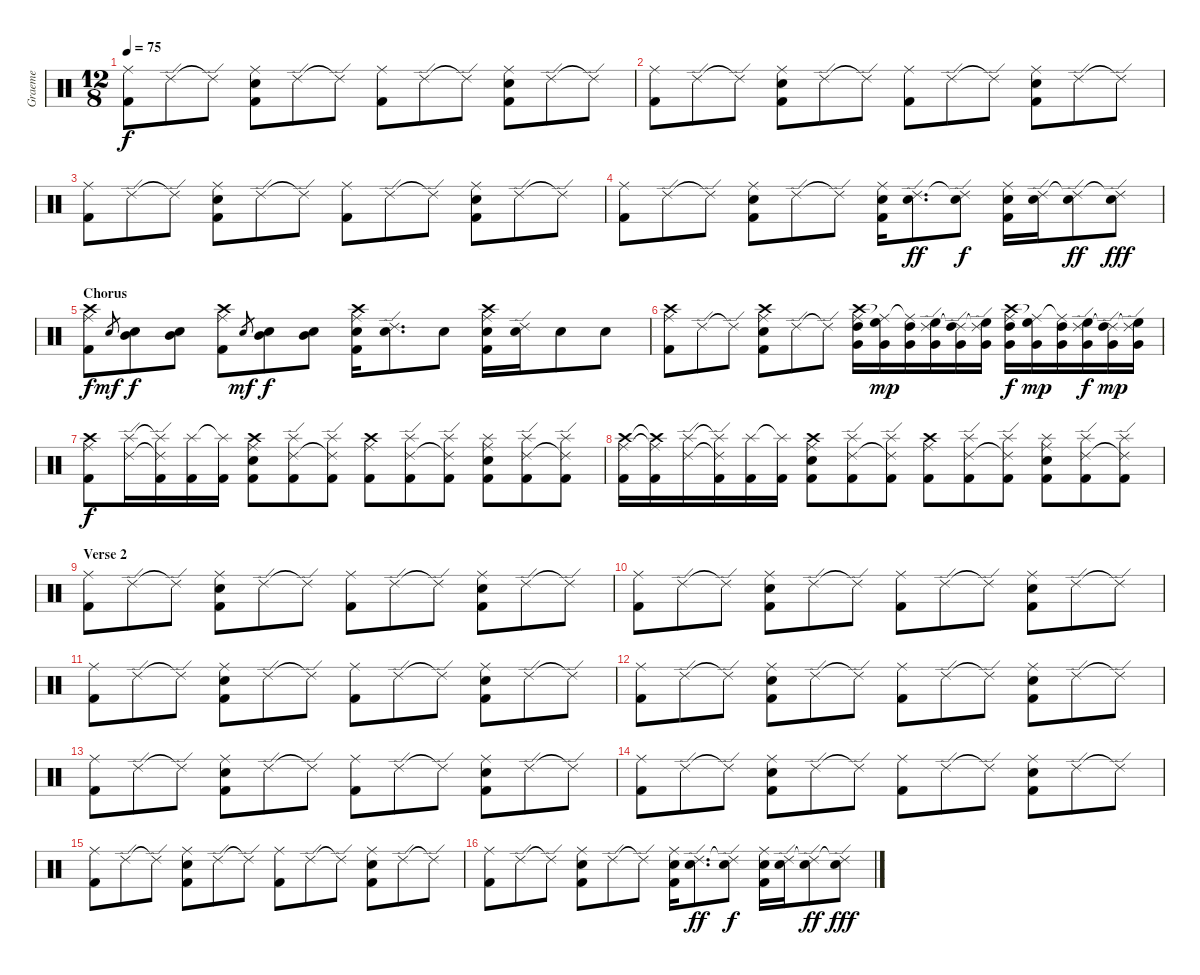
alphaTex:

\track ("Graeme" "Graeme") {instrument percussion}
\staff {score}
\articulation defaults
\ts (12 8)
\tempo 75
\clef neutral
\ks c
("Ride (middle)" "Kick (hit) 2").8{dy f} "Ride (edge) 2".8 "Ride (edge) 2"{t}.8 ("Ride (middle)" "Electric Snare (hit)" "Kick (hit) 2").8 "Ride (edge) 2".8 "Ride (edge) 2"{t}.8 ("Ride (middle)" "Kick (hit) 2").8 "Ride (edge) 2".8 "Ride (edge) 2"{t}.8 ("Ride (middle)" "Electric Snare (hit)" "Kick (hit) 2").8 "Ride (edge) 2".8 "Ride (edge) 2"{t}.8 |
("Ride (middle)" "Kick (hit) 2").8 "Ride (edge) 2".8 "Ride (edge) 2"{t}.8 ("Ride (middle)" "Electric Snare (hit)" "Kick (hit) 2").8 "Ride (edge) 2".8 "Ride (edge) 2"{t}.8 ("Ride (middle)" "Kick (hit) 2").8 "Ride (edge) 2".8 "Ride (edge) 2"{t}.8 ("Ride (middle)" "Electric Snare (hit)" "Kick (hit) 2").8 "Ride (edge) 2".8 "Ride (edge) 2"{t}.8 |
("Ride (middle)" "Kick (hit) 2").8 "Ride (edge) 2".8 "Ride (edge) 2"{t}.8 ("Ride (middle)" "Electric Snare (hit)" "Kick (hit) 2").8 "Ride (edge) 2".8 "Ride (edge) 2"{t}.8 ("Ride (middle)" "Kick (hit) 2").8 "Ride (edge) 2".8 "Ride (edge) 2"{t}.8 ("Ride (middle)" "Electric Snare (hit)" "Kick (hit) 2").8 "Ride (edge) 2".8 "Ride (edge) 2"{t}.8 |
("Ride (middle)" "Kick (hit) 2").8 "Ride (edge) 2".8 "Ride (edge) 2"{t}.8 ("Ride (middle)" "Electric Snare (hit)" "Kick (hit) 2").8 "Ride (edge) 2".8 "Ride (edge) 2"{t}.8 ("Ride (middle)" "Electric Snare (hit)" "Kick (hit) 2").16 ("Ride (edge) 2" "Electric Snare (hit)").8{d dy ff} ("Ride (edge) 2"{t} "Electric Snare (hit)").8{dy f} ("Ride (middle)" "Electric Snare (hit)" "Kick (hit) 2").16 ("Ride (edge) 2" "Electric Snare (hit)").16 ("Ride (edge) 2"{t} "Electric Snare (hit)").8{dy ff} ("Ride (edge) 2"{t} "Electric Snare (hit)").8{dy fff} |
\section ("" "Chorus")
("Crash high (hit)" "Ride (middle)" "Kick (hit) 2").8{dy f} "Electric Snare (hit)".8{gr dy mf} ("Mid Tom (hit)" "Electric Snare (hit)").8{dy f} ("Mid Tom (hit)" "Electric Snare (hit)").8 ("Crash high (hit)" "Ride (middle)" "Kick (hit) 2").8 "Electric Snare (hit)".8{gr dy mf} ("Mid Tom (hit)" "Electric Snare (hit)").8{dy f} ("Mid Tom (hit)" "Electric Snare (hit)").8 ("Crash high (hit)" "Ride (middle)" "Electric Snare (hit)" "Kick (hit) 2").16 ("Ride (edge) 2" "Electric Snare (hit)").8{d} "Electric Snare (hit)".8 ("Crash high (hit)" "Ride (middle)" "Electric Snare (hit)" "Kick (hit) 2").16 ("Ride (edge) 2" "Electric Snare (hit)").16 "Electric Snare (hit)".8 "Electric Snare (hit)".8 |
("Crash high (hit)" "Ride (middle)" "Kick (hit) 2").8 "Ride (edge) 2".8 "Ride (edge) 2"{t}.8 ("Crash high (hit)" "Ride (middle)" "Electric Snare (hit)" "Kick (hit) 2").8 "Ride (edge) 2".8 "Ride (edge) 2"{t}.8 ("Crash high (hit)" "Ride (middle)" "High Tom (hit)" "Very Low Tom (hit)").16 ("Ride (middle)"{t} "High Floor Tom (hit)" "Very Low Tom (hit)").16{dy mp} ("Ride (middle)"{t} "High Tom (hit)" "Very Low Tom (hit)").16 ("Ride (edge) 2" "High Floor Tom (hit)" "Very Low Tom (hit)").16 ("Ride (edge) 2"{t} "High Tom (hit)" "Very Low Tom (hit)").16 ("Ride (edge) 2"{t} "High Floor Tom (hit)" "Very Low Tom (hit)").16 ("Crash high (hit)" "Ride (middle)" "High Tom (hit)" "Very Low Tom (hit)").16{dy f} ("Ride (middle)"{t} "High Floor Tom (hit)" "Very Low Tom (hit)").16{dy mp} ("Ride (middle)"{t} "High Tom (hit)" "Very Low Tom (hit)").16 ("Ride (edge) 2" "High Floor Tom (hit)" "Very Low Tom (hit)").16{dy f} ("Ride (edge) 2"{t} "High Tom (hit)" "Very Low Tom (hit)").16{dy mp} ("Ride (edge) 2"{t} "High Floor Tom (hit)" "Very Low Tom (hit)").16 |
("Crash high (hit)" "Ride (middle)" "Kick (hit) 2").8{dy f} ("Splash (hit)" "Ride (edge) 2").16 ("Splash (hit)"{t} "Ride (edge) 2"{t} "Kick (hit) 2").16 ("Splash (hit)" "Kick (hit) 2").16 ("Splash (hit)"{t} "Kick (hit) 2").16 ("Crash high (hit)" "Ride (middle)" "Electric Snare (hit)" "Kick (hit) 2").8 ("Splash (hit)" "Ride (edge) 2" "Kick (hit) 2").8 ("Splash (hit)" "Ride (edge) 2"{t} "Kick (hit) 2").8 ("Crash high (hit)" "Ride (middle)" "Kick (hit) 2").8 ("Splash (hit)" "Ride (edge) 2" "Kick (hit) 2").8 ("Splash (hit)" "Ride (edge) 2"{t} "Kick (hit) 2").8 ("Splash (hit)" "Ride (middle)" "Electric Snare (hit)" "Kick (hit) 2").8 ("Splash (hit)" "Ride (edge) 2" "Kick (hit) 2").8 ("Splash (hit)" "Ride (edge) 2"{t} "Kick (hit) 2").8 |
("Crash high (hit)" "Ride (middle)" "Kick (hit) 2").16 ("Crash high (hit)"{t} "Ride (middle)"{t} "Kick (hit) 2").16 ("Splash (hit)" "Ride (edge) 2").16 ("Splash (hit)"{t} "Ride (edge) 2"{t} "Kick (hit) 2").16 ("Splash (hit)" "Kick (hit) 2").16 ("Splash (hit)"{t} "Kick (hit) 2").16 ("Crash high (hit)" "Ride (middle)" "Electric Snare (hit)" "Kick (hit) 2").8 ("Splash (hit)" "Ride (edge) 2" "Kick (hit) 2").8 ("Splash (hit)" "Ride (edge) 2"{t} "Kick (hit) 2").8 ("Crash high (hit)" "Ride (middle)" "Kick (hit) 2").8 ("Splash (hit)" "Ride (edge) 2" "Kick (hit) 2").8 ("Splash (hit)" "Ride (edge) 2"{t} "Kick (hit) 2").8 ("Splash (hit)" "Ride (middle)" "Electric Snare (hit)" "Kick (hit) 2").8 ("Splash (hit)" "Ride (edge) 2" "Kick (hit) 2").8 ("Splash (hit)" "Ride (edge) 2"{t} "Kick (hit) 2").8 |
\section ("" "Verse 2")
("Ride (middle)" "Kick (hit) 2").8 "Ride (edge) 2".8 "Ride (edge) 2"{t}.8 ("Ride (middle)" "Electric Snare (hit)" "Kick (hit) 2").8 "Ride (edge) 2".8 "Ride (edge) 2"{t}.8 ("Ride (middle)" "Kick (hit) 2").8 "Ride (edge) 2".8 "Ride (edge) 2"{t}.8 ("Ride (middle)" "Electric Snare (hit)" "Kick (hit) 2").8 "Ride (edge) 2".8 "Ride (edge) 2"{t}.8 |
("Ride (middle)" "Kick (hit) 2").8 "Ride (edge) 2".8 "Ride (edge) 2"{t}.8 ("Ride (middle)" "Electric Snare (hit)" "Kick (hit) 2").8 "Ride (edge) 2".8 "Ride (edge) 2"{t}.8 ("Ride (middle)" "Kick (hit) 2").8 "Ride (edge) 2".8 "Ride (edge) 2"{t}.8 ("Ride (middle)" "Electric Snare (hit)" "Kick (hit) 2").8 "Ride (edge) 2".8 "Ride (edge) 2"{t}.8 |
("Ride (middle)" "Kick (hit) 2").8 "Ride (edge) 2".8 "Ride (edge) 2"{t}.8 ("Ride (middle)" "Electric Snare (hit)" "Kick (hit) 2").8 "Ride (edge) 2".8 "Ride (edge) 2"{t}.8 ("Ride (middle)" "Kick (hit) 2").8 "Ride (edge) 2".8 "Ride (edge) 2"{t}.8 ("Ride (middle)" "Electric Snare (hit)" "Kick (hit) 2").8 "Ride (edge) 2".8 "Ride (edge) 2"{t}.8 |
("Ride (middle)" "Kick (hit) 2").8 "Ride (edge) 2".8 "Ride (edge) 2"{t}.8 ("Ride (middle)" "Electric Snare (hit)" "Kick (hit) 2").8 "Ride (edge) 2".8 "Ride (edge) 2"{t}.8 ("Ride (middle)" "Kick (hit) 2").8 "Ride (edge) 2".8 "Ride (edge) 2"{t}.8 ("Ride (middle)" "Electric Snare (hit)" "Kick (hit) 2").8 "Ride (edge) 2".8 "Ride (edge) 2"{t}.8 |
("Ride (middle)" "Kick (hit) 2").8 "Ride (edge) 2".8 "Ride (edge) 2"{t}.8 ("Ride (middle)" "Electric Snare (hit)" "Kick (hit) 2").8 "Ride (edge) 2".8 "Ride (edge) 2"{t}.8 ("Ride (middle)" "Kick (hit) 2").8 "Ride (edge) 2".8 "Ride (edge) 2"{t}.8 ("Ride (middle)" "Electric Snare (hit)" "Kick (hit) 2").8 "Ride (edge) 2".8 "Ride (edge) 2"{t}.8 |
("Ride (middle)" "Kick (hit) 2").8 "Ride (edge) 2".8 "Ride (edge) 2"{t}.8 ("Ride (middle)" "Electric Snare (hit)" "Kick (hit) 2").8 "Ride (edge) 2".8 "Ride (edge) 2"{t}.8 ("Ride (middle)" "Kick (hit) 2").8 "Ride (edge) 2".8 "Ride (edge) 2"{t}.8 ("Ride (middle)" "Electric Snare (hit)" "Kick (hit) 2").8 "Ride (edge) 2".8 "Ride (edge) 2"{t}.8 |
("Ride (middle)" "Kick (hit) 2").8 "Ride (edge) 2".8 "Ride (edge) 2"{t}.8 ("Ride (middle)" "Electric Snare (hit)" "Kick (hit) 2").8 "Ride (edge) 2".8 "Ride (edge) 2"{t}.8 ("Ride (middle)" "Kick (hit) 2").8 "Ride (edge) 2".8 "Ride (edge) 2"{t}.8 ("Ride (middle)" "Electric Snare (hit)" "Kick (hit) 2").8 "Ride (edge) 2".8 "Ride (edge) 2"{t}.8 |
("Ride (middle)" "Kick (hit) 2").8 "Ride (edge) 2".8 "Ride (edge) 2"{t}.8 ("Ride (middle)" "Electric Snare (hit)" "Kick (hit) 2").8 "Ride (edge) 2".8 "Ride (edge) 2"{t}.8 ("Ride (middle)" "Electric Snare (hit)" "Kick (hit) 2").16 ("Ride (edge) 2" "Electric Snare (hit)").8{d dy ff} ("Ride (edge) 2"{t} "Electric Snare (hit)").8{dy f} ("Ride (middle)" "Electric Snare (hit)" "Kick (hit) 2").16 ("Ride (edge) 2" "Electric Snare (hit)").16 ("Ride (edge) 2"{t} "Electric Snare (hit)").8{dy ff} ("Ride (edge) 2"{t} "Electric Snare (hit)").8{dy fff}
